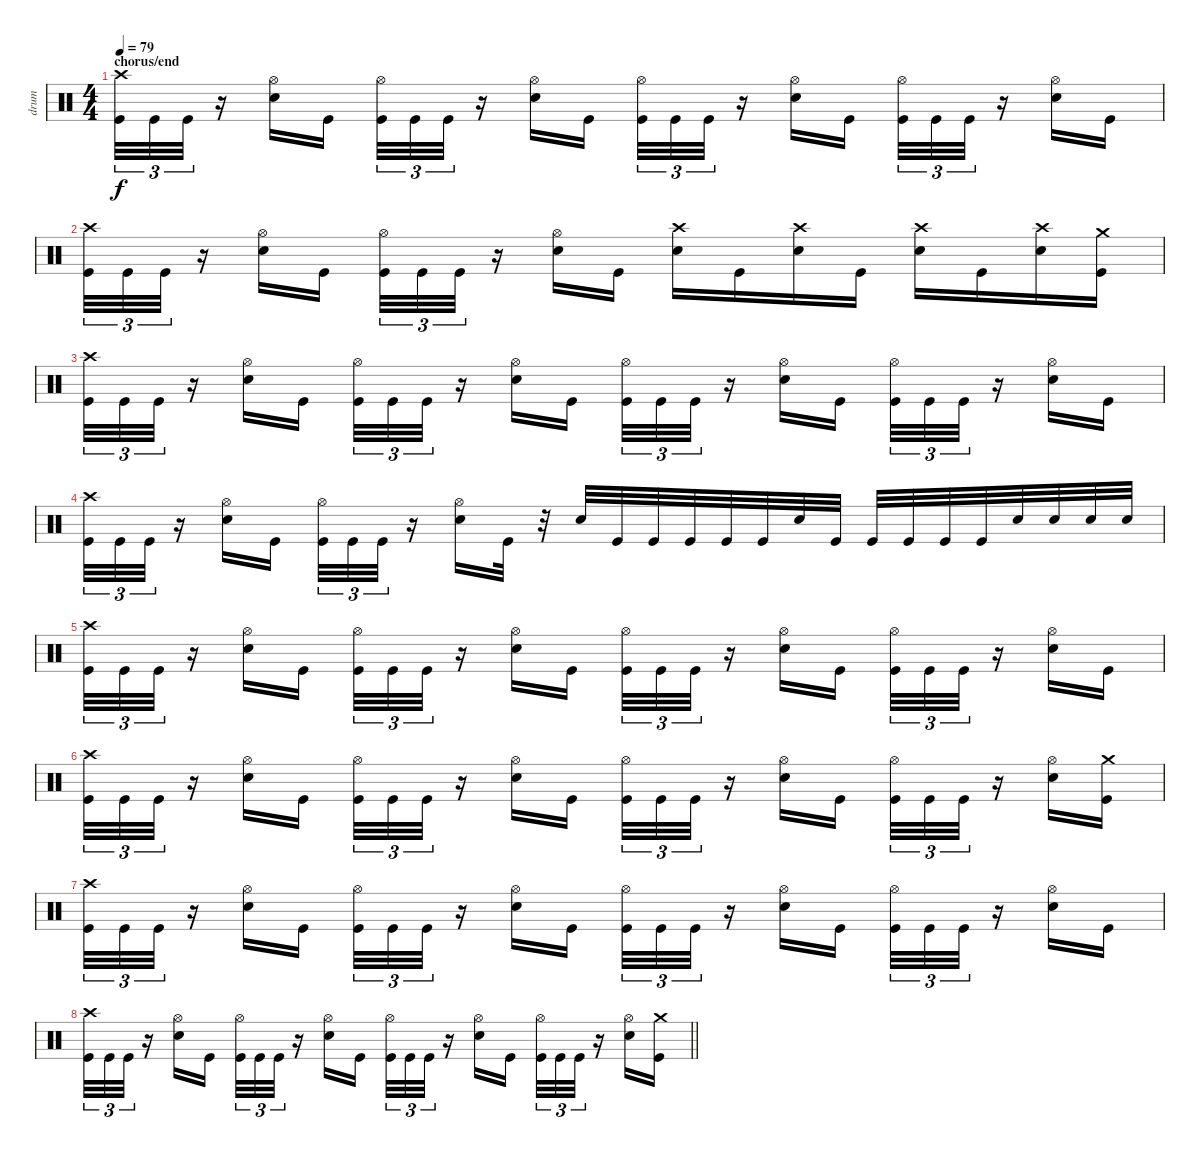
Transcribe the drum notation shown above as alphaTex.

\track ("drum" "drum") {instrument percussion}
\staff {score}
\articulation defaults
\ts (4 4)
\section ("" "chorus/end")
\tempo 79
\clef neutral
\ks c
("Crash high (hit)" "Kick (hit)").32{tu (3 2) dy f} "Kick (hit)".32{tu (3 2)} "Kick (hit)".32{tu (3 2)} r.16 ("Hi-Hat (open)" "Snare (hit) 2").16 "Kick (hit)".16 ("Hi-Hat (open)" "Kick (hit)").32{tu (3 2)} "Kick (hit)".32{tu (3 2)} "Kick (hit)".32{tu (3 2)} r.16 ("Hi-Hat (open)" "Snare (hit) 2").16 "Kick (hit)".16 ("Hi-Hat (open)" "Kick (hit)").32{tu (3 2)} "Kick (hit)".32{tu (3 2)} "Kick (hit)".32{tu (3 2)} r.16 ("Hi-Hat (open)" "Snare (hit) 2").16 "Kick (hit)".16 ("Hi-Hat (open)" "Kick (hit)").32{tu (3 2)} "Kick (hit)".32{tu (3 2)} "Kick (hit)".32{tu (3 2)} r.16 ("Hi-Hat (open)" "Snare (hit) 2").16 "Kick (hit)".16 |
("Crash high (hit)" "Kick (hit)").32{tu (3 2)} "Kick (hit)".32{tu (3 2)} "Kick (hit)".32{tu (3 2)} r.16 ("Hi-Hat (open)" "Snare (hit) 2").16 "Kick (hit)".16 ("Hi-Hat (open)" "Kick (hit)").32{tu (3 2)} "Kick (hit)".32{tu (3 2)} "Kick (hit)".32{tu (3 2)} r.16 ("Hi-Hat (open)" "Snare (hit) 2").16 "Kick (hit)".16 ("Snare (hit) 2" "Crash high (hit)").16 "Kick (hit)".16 ("Snare (hit) 2" "Crash high (hit)").16 "Kick (hit)".16 ("Snare (hit) 2" "Crash high (hit)").16 "Kick (hit)".16 ("Snare (hit) 2" "Crash high (hit)").16 ("Crash medium (hit)" "Kick (hit)").16 |
("Crash high (hit)" "Kick (hit)").32{tu (3 2)} "Kick (hit)".32{tu (3 2)} "Kick (hit)".32{tu (3 2)} r.16 ("Hi-Hat (open)" "Snare (hit) 2").16 "Kick (hit)".16 ("Hi-Hat (open)" "Kick (hit)").32{tu (3 2)} "Kick (hit)".32{tu (3 2)} "Kick (hit)".32{tu (3 2)} r.16 ("Hi-Hat (open)" "Snare (hit) 2").16 "Kick (hit)".16 ("Hi-Hat (open)" "Kick (hit)").32{tu (3 2)} "Kick (hit)".32{tu (3 2)} "Kick (hit)".32{tu (3 2)} r.16 ("Hi-Hat (open)" "Snare (hit) 2").16 "Kick (hit)".16 ("Hi-Hat (open)" "Kick (hit)").32{tu (3 2)} "Kick (hit)".32{tu (3 2)} "Kick (hit)".32{tu (3 2)} r.16 ("Hi-Hat (open)" "Snare (hit) 2").16 "Kick (hit)".16 |
("Crash high (hit)" "Kick (hit)").32{tu (3 2)} "Kick (hit)".32{tu (3 2)} "Kick (hit)".32{tu (3 2)} r.16 ("Hi-Hat (open)" "Snare (hit) 2").16 "Kick (hit)".16 ("Hi-Hat (open)" "Kick (hit)").32{tu (3 2)} "Kick (hit)".32{tu (3 2)} "Kick (hit)".32{tu (3 2)} r.16 ("Hi-Hat (open)" "Snare (hit) 2").16 "Kick (hit)".32 r.32 "Snare (hit) 2".32 "Kick (hit)".32 "Kick (hit)".32 "Kick (hit)".32 "Kick (hit)".32 "Kick (hit)".32 "Snare (hit) 2".32 "Kick (hit)".32 "Kick (hit)".32 "Kick (hit)".32 "Kick (hit)".32 "Kick (hit)".32 "Snare (hit) 2".32 "Snare (hit) 2".32 "Snare (hit) 2".32 "Snare (hit) 2".32 |
("Crash high (hit)" "Kick (hit)").32{tu (3 2)} "Kick (hit)".32{tu (3 2)} "Kick (hit)".32{tu (3 2)} r.16 ("Hi-Hat (open)" "Snare (hit) 2").16 "Kick (hit)".16 ("Hi-Hat (open)" "Kick (hit)").32{tu (3 2)} "Kick (hit)".32{tu (3 2)} "Kick (hit)".32{tu (3 2)} r.16 ("Hi-Hat (open)" "Snare (hit) 2").16 "Kick (hit)".16 ("Hi-Hat (open)" "Kick (hit)").32{tu (3 2)} "Kick (hit)".32{tu (3 2)} "Kick (hit)".32{tu (3 2)} r.16 ("Hi-Hat (open)" "Snare (hit) 2").16 "Kick (hit)".16 ("Hi-Hat (open)" "Kick (hit)").32{tu (3 2)} "Kick (hit)".32{tu (3 2)} "Kick (hit)".32{tu (3 2)} r.16 ("Hi-Hat (open)" "Snare (hit) 2").16 "Kick (hit)".16 |
("Crash high (hit)" "Kick (hit)").32{tu (3 2)} "Kick (hit)".32{tu (3 2)} "Kick (hit)".32{tu (3 2)} r.16 ("Hi-Hat (open)" "Snare (hit) 2").16 "Kick (hit)".16 ("Hi-Hat (open)" "Kick (hit)").32{tu (3 2)} "Kick (hit)".32{tu (3 2)} "Kick (hit)".32{tu (3 2)} r.16 ("Hi-Hat (open)" "Snare (hit) 2").16 "Kick (hit)".16 ("Hi-Hat (open)" "Kick (hit)").32{tu (3 2)} "Kick (hit)".32{tu (3 2)} "Kick (hit)".32{tu (3 2)} r.16 ("Hi-Hat (open)" "Snare (hit) 2").16 "Kick (hit)".16 ("Hi-Hat (open)" "Kick (hit)").32{tu (3 2)} "Kick (hit)".32{tu (3 2)} "Kick (hit)".32{tu (3 2)} r.16 ("Hi-Hat (open)" "Snare (hit) 2").16 ("Crash medium (hit)" "Kick (hit)").16 |
("Crash high (hit)" "Kick (hit)").32{tu (3 2)} "Kick (hit)".32{tu (3 2)} "Kick (hit)".32{tu (3 2)} r.16 ("Hi-Hat (open)" "Snare (hit) 2").16 "Kick (hit)".16 ("Hi-Hat (open)" "Kick (hit)").32{tu (3 2)} "Kick (hit)".32{tu (3 2)} "Kick (hit)".32{tu (3 2)} r.16 ("Hi-Hat (open)" "Snare (hit) 2").16 "Kick (hit)".16 ("Hi-Hat (open)" "Kick (hit)").32{tu (3 2)} "Kick (hit)".32{tu (3 2)} "Kick (hit)".32{tu (3 2)} r.16 ("Hi-Hat (open)" "Snare (hit) 2").16 "Kick (hit)".16 ("Hi-Hat (open)" "Kick (hit)").32{tu (3 2)} "Kick (hit)".32{tu (3 2)} "Kick (hit)".32{tu (3 2)} r.16 ("Hi-Hat (open)" "Snare (hit) 2").16 "Kick (hit)".16 |
\barLineRight lightlight
("Crash high (hit)" "Kick (hit)").32{tu (3 2)} "Kick (hit)".32{tu (3 2)} "Kick (hit)".32{tu (3 2)} r.16 ("Hi-Hat (open)" "Snare (hit) 2").16 "Kick (hit)".16 ("Hi-Hat (open)" "Kick (hit)").32{tu (3 2)} "Kick (hit)".32{tu (3 2)} "Kick (hit)".32{tu (3 2)} r.16 ("Hi-Hat (open)" "Snare (hit) 2").16 "Kick (hit)".16 ("Hi-Hat (open)" "Kick (hit)").32{tu (3 2)} "Kick (hit)".32{tu (3 2)} "Kick (hit)".32{tu (3 2)} r.16 ("Hi-Hat (open)" "Snare (hit) 2").16 "Kick (hit)".16 ("Hi-Hat (open)" "Kick (hit)").32{tu (3 2)} "Kick (hit)".32{tu (3 2)} "Kick (hit)".32{tu (3 2)} r.16 ("Hi-Hat (open)" "Snare (hit) 2").16 ("Crash medium (hit)" "Kick (hit)").16
